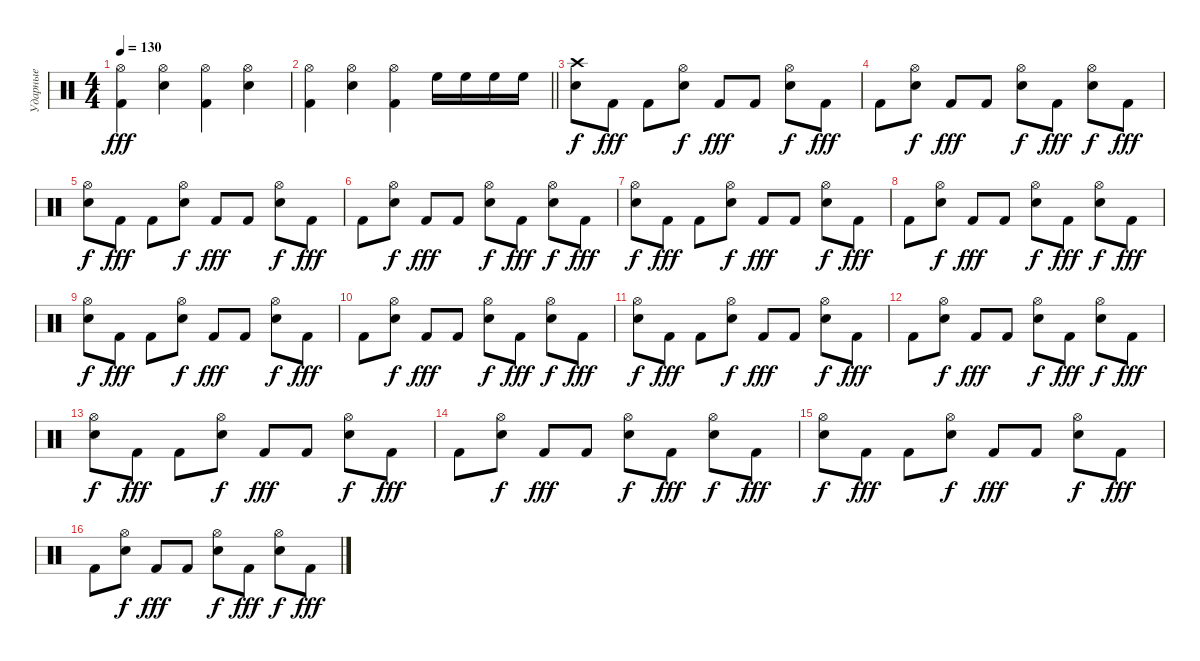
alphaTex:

\track ("Ударные" "Ударные") {instrument percussion}
\staff {score}
\articulation defaults
\ts (4 4)
\tempo 130
\clef neutral
\ks c
("Kick (hit) 2" "Hi-Hat (open)").4{dy fff} ("Snare (hit) 2" "Hi-Hat (open)").4 ("Kick (hit) 2" "Hi-Hat (open)").4 ("Snare (hit) 2" "Hi-Hat (open)").4 |
\barLineRight lightlight
("Kick (hit) 2" "Hi-Hat (open)").4 ("Snare (hit) 2" "Hi-Hat (open)").4 ("Kick (hit) 2" "Hi-Hat (open)").4 "High Floor Tom (hit)".16 "High Floor Tom (hit)".16 "High Floor Tom (hit)".16 "High Floor Tom (hit)".16 |
("Snare (hit) 2" "Crash high (hit)").8{dy f} "Kick (hit) 2".8{dy fff} "Kick (hit) 2".8 ("Snare (hit) 2" "Hi-Hat (open)").8{dy f} "Kick (hit) 2".8{dy fff} "Kick (hit) 2".8 ("Snare (hit) 2" "Hi-Hat (open)").8{dy f} "Kick (hit) 2".8{dy fff} |
"Kick (hit) 2".8 ("Snare (hit) 2" "Hi-Hat (open)").8{dy f} "Kick (hit) 2".8{dy fff} "Kick (hit) 2".8 ("Snare (hit) 2" "Hi-Hat (open)").8{dy f} "Kick (hit) 2".8{dy fff} ("Snare (hit) 2" "Hi-Hat (open)").8{dy f} "Kick (hit) 2".8{dy fff} |
("Snare (hit) 2" "Hi-Hat (open)").8{dy f} "Kick (hit) 2".8{dy fff} "Kick (hit) 2".8 ("Snare (hit) 2" "Hi-Hat (open)").8{dy f} "Kick (hit) 2".8{dy fff} "Kick (hit) 2".8 ("Snare (hit) 2" "Hi-Hat (open)").8{dy f} "Kick (hit) 2".8{dy fff} |
"Kick (hit) 2".8 ("Snare (hit) 2" "Hi-Hat (open)").8{dy f} "Kick (hit) 2".8{dy fff} "Kick (hit) 2".8 ("Snare (hit) 2" "Hi-Hat (open)").8{dy f} "Kick (hit) 2".8{dy fff} ("Snare (hit) 2" "Hi-Hat (open)").8{dy f} "Kick (hit) 2".8{dy fff} |
("Snare (hit) 2" "Hi-Hat (open)").8{dy f} "Kick (hit) 2".8{dy fff} "Kick (hit) 2".8 ("Snare (hit) 2" "Hi-Hat (open)").8{dy f} "Kick (hit) 2".8{dy fff} "Kick (hit) 2".8 ("Snare (hit) 2" "Hi-Hat (open)").8{dy f} "Kick (hit) 2".8{dy fff} |
"Kick (hit) 2".8 ("Snare (hit) 2" "Hi-Hat (open)").8{dy f} "Kick (hit) 2".8{dy fff} "Kick (hit) 2".8 ("Snare (hit) 2" "Hi-Hat (open)").8{dy f} "Kick (hit) 2".8{dy fff} ("Snare (hit) 2" "Hi-Hat (open)").8{dy f} "Kick (hit) 2".8{dy fff} |
("Snare (hit) 2" "Hi-Hat (open)").8{dy f} "Kick (hit) 2".8{dy fff} "Kick (hit) 2".8 ("Snare (hit) 2" "Hi-Hat (open)").8{dy f} "Kick (hit) 2".8{dy fff} "Kick (hit) 2".8 ("Snare (hit) 2" "Hi-Hat (open)").8{dy f} "Kick (hit) 2".8{dy fff} |
"Kick (hit) 2".8 ("Snare (hit) 2" "Hi-Hat (open)").8{dy f} "Kick (hit) 2".8{dy fff} "Kick (hit) 2".8 ("Snare (hit) 2" "Hi-Hat (open)").8{dy f} "Kick (hit) 2".8{dy fff} ("Snare (hit) 2" "Hi-Hat (open)").8{dy f} "Kick (hit) 2".8{dy fff} |
("Snare (hit) 2" "Hi-Hat (open)").8{dy f} "Kick (hit) 2".8{dy fff} "Kick (hit) 2".8 ("Snare (hit) 2" "Hi-Hat (open)").8{dy f} "Kick (hit) 2".8{dy fff} "Kick (hit) 2".8 ("Snare (hit) 2" "Hi-Hat (open)").8{dy f} "Kick (hit) 2".8{dy fff} |
"Kick (hit) 2".8 ("Snare (hit) 2" "Hi-Hat (open)").8{dy f} "Kick (hit) 2".8{dy fff} "Kick (hit) 2".8 ("Snare (hit) 2" "Hi-Hat (open)").8{dy f} "Kick (hit) 2".8{dy fff} ("Snare (hit) 2" "Hi-Hat (open)").8{dy f} "Kick (hit) 2".8{dy fff} |
("Snare (hit) 2" "Hi-Hat (open)").8{dy f} "Kick (hit) 2".8{dy fff} "Kick (hit) 2".8 ("Snare (hit) 2" "Hi-Hat (open)").8{dy f} "Kick (hit) 2".8{dy fff} "Kick (hit) 2".8 ("Snare (hit) 2" "Hi-Hat (open)").8{dy f} "Kick (hit) 2".8{dy fff} |
"Kick (hit) 2".8 ("Snare (hit) 2" "Hi-Hat (open)").8{dy f} "Kick (hit) 2".8{dy fff} "Kick (hit) 2".8 ("Snare (hit) 2" "Hi-Hat (open)").8{dy f} "Kick (hit) 2".8{dy fff} ("Snare (hit) 2" "Hi-Hat (open)").8{dy f} "Kick (hit) 2".8{dy fff} |
("Snare (hit) 2" "Hi-Hat (open)").8{dy f} "Kick (hit) 2".8{dy fff} "Kick (hit) 2".8 ("Snare (hit) 2" "Hi-Hat (open)").8{dy f} "Kick (hit) 2".8{dy fff} "Kick (hit) 2".8 ("Snare (hit) 2" "Hi-Hat (open)").8{dy f} "Kick (hit) 2".8{dy fff} |
"Kick (hit) 2".8 ("Snare (hit) 2" "Hi-Hat (open)").8{dy f} "Kick (hit) 2".8{dy fff} "Kick (hit) 2".8 ("Snare (hit) 2" "Hi-Hat (open)").8{dy f} "Kick (hit) 2".8{dy fff} ("Snare (hit) 2" "Hi-Hat (open)").8{dy f} "Kick (hit) 2".8{dy fff}
